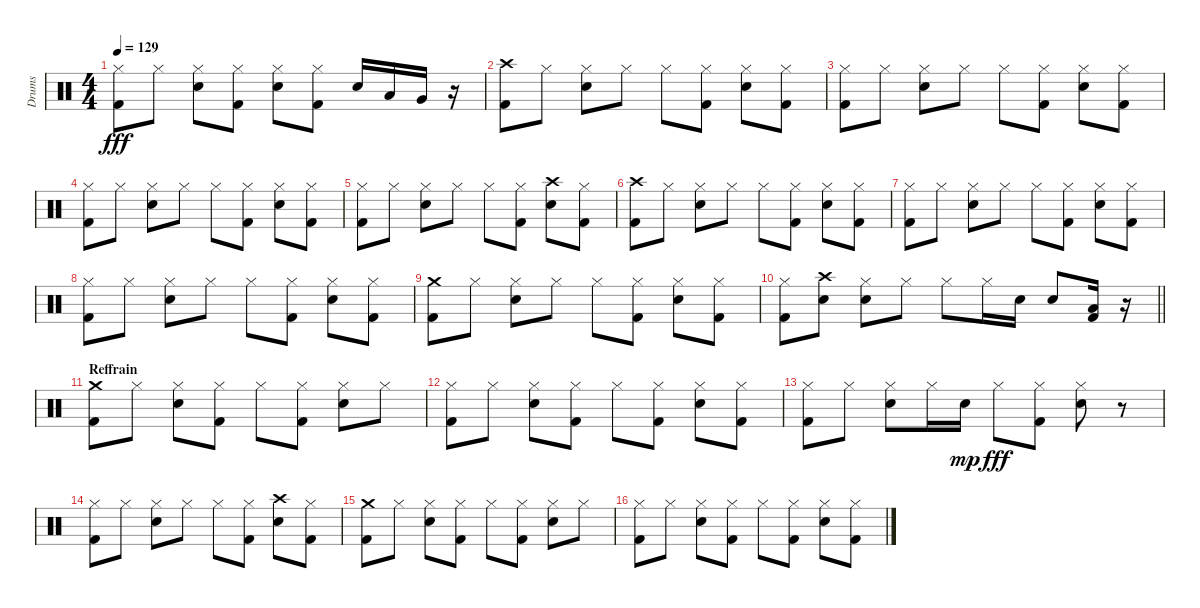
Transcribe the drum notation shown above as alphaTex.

\track ("Drums" "Drums") {instrument percussion}
\staff {score}
\articulation defaults
\ts (4 4)
\tempo 129
\clef neutral
\ks c
("Hi-Hat (closed)" "Kick (hit) 2").8{dy fff} "Hi-Hat (closed)".8 ("Hi-Hat (closed)" "Snare (hit) 2").8 ("Hi-Hat (closed)" "Kick (hit) 2").8 ("Hi-Hat (closed)" "Snare (hit) 2").8 ("Hi-Hat (closed)" "Kick (hit) 2").8 "Snare (hit) 2".16 "Low Tom (hit)".16 "Very Low Tom (hit)".16 r.16 |
("Crash high (hit)" "Kick (hit) 2").8 "Hi-Hat (closed)".8 ("Hi-Hat (closed)" "Snare (hit) 2").8 "Hi-Hat (closed)".8 "Hi-Hat (closed)".8 ("Hi-Hat (closed)" "Kick (hit) 2").8 ("Hi-Hat (closed)" "Snare (hit) 2").8 ("Hi-Hat (closed)" "Kick (hit) 2").8 |
("Hi-Hat (closed)" "Kick (hit) 2").8 "Hi-Hat (closed)".8 ("Hi-Hat (closed)" "Snare (hit) 2").8 "Hi-Hat (closed)".8 "Hi-Hat (closed)".8 ("Hi-Hat (closed)" "Kick (hit) 2").8 ("Hi-Hat (closed)" "Snare (hit) 2").8 ("Hi-Hat (closed)" "Kick (hit) 2").8 |
("Hi-Hat (closed)" "Kick (hit) 2").8 "Hi-Hat (closed)".8 ("Hi-Hat (closed)" "Snare (hit) 2").8 "Hi-Hat (closed)".8 "Hi-Hat (closed)".8 ("Hi-Hat (closed)" "Kick (hit) 2").8 ("Hi-Hat (closed)" "Snare (hit) 2").8 ("Hi-Hat (closed)" "Kick (hit) 2").8 |
("Hi-Hat (closed)" "Kick (hit) 2").8 "Hi-Hat (closed)".8 ("Hi-Hat (closed)" "Snare (hit) 2").8 "Hi-Hat (closed)".8 "Hi-Hat (closed)".8 ("Hi-Hat (closed)" "Kick (hit) 2").8 ("Crash high (hit)" "Snare (hit) 2").8 ("Hi-Hat (closed)" "Kick (hit) 2").8 |
("Crash high (hit)" "Kick (hit) 2").8 "Hi-Hat (closed)".8 ("Hi-Hat (closed)" "Snare (hit) 2").8 "Hi-Hat (closed)".8 "Hi-Hat (closed)".8 ("Hi-Hat (closed)" "Kick (hit) 2").8 ("Hi-Hat (closed)" "Snare (hit) 2").8 ("Hi-Hat (closed)" "Kick (hit) 2").8 |
("Hi-Hat (closed)" "Kick (hit) 2").8 "Hi-Hat (closed)".8 ("Hi-Hat (closed)" "Snare (hit) 2").8 "Hi-Hat (closed)".8 "Hi-Hat (closed)".8 ("Hi-Hat (closed)" "Kick (hit) 2").8 ("Hi-Hat (closed)" "Snare (hit) 2").8 ("Hi-Hat (closed)" "Kick (hit) 2").8 |
("Hi-Hat (closed)" "Kick (hit) 2").8 "Hi-Hat (closed)".8 ("Hi-Hat (closed)" "Snare (hit) 2").8 "Hi-Hat (closed)".8 "Hi-Hat (closed)".8 ("Hi-Hat (closed)" "Kick (hit) 2").8 ("Hi-Hat (closed)" "Snare (hit) 2").8 ("Hi-Hat (closed)" "Kick (hit) 2").8 |
("Crash medium (hit)" "Kick (hit) 2").8 "Hi-Hat (closed)".8 ("Hi-Hat (closed)" "Snare (hit) 2").8 "Hi-Hat (closed)".8 "Hi-Hat (closed)".8 ("Hi-Hat (closed)" "Kick (hit) 2").8 ("Hi-Hat (closed)" "Snare (hit) 2").8 ("Hi-Hat (closed)" "Kick (hit) 2").8 |
\barLineRight lightlight
("Hi-Hat (closed)" "Kick (hit) 2").8 ("Crash high (hit)" "Snare (hit) 2").8 ("Hi-Hat (closed)" "Snare (hit) 2").8 "Hi-Hat (closed)".8 "Hi-Hat (closed)".8 "Hi-Hat (closed)".16 "Snare (hit) 2".16 "Snare (hit) 2".8 ("Low Tom (hit)" "Kick (hit) 2").16 r.16 |
\section ("" "Reffrain")
("Crash medium (hit)" "Kick (hit) 2").8 "Hi-Hat (closed)".8 ("Hi-Hat (closed)" "Snare (hit) 2").8 ("Hi-Hat (closed)" "Kick (hit) 2").8 "Hi-Hat (closed)".8 ("Hi-Hat (closed)" "Kick (hit) 2").8 ("Hi-Hat (closed)" "Snare (hit) 2").8 "Hi-Hat (closed)".8 |
("Hi-Hat (closed)" "Kick (hit) 2").8 "Hi-Hat (closed)".8 ("Hi-Hat (closed)" "Snare (hit) 2").8 ("Hi-Hat (closed)" "Kick (hit) 2").8 "Hi-Hat (closed)".8 ("Hi-Hat (closed)" "Kick (hit) 2").8 ("Hi-Hat (closed)" "Snare (hit) 2").8 ("Hi-Hat (closed)" "Kick (hit) 2").8 |
("Hi-Hat (closed)" "Kick (hit) 2").8 "Hi-Hat (closed)".8 ("Hi-Hat (closed)" "Snare (hit) 2").8 "Hi-Hat (closed)".16 "Snare (hit) 2".16{dy mp} "Hi-Hat (closed)".8{dy fff} ("Hi-Hat (closed)" "Kick (hit) 2").8 ("Hi-Hat (closed)" "Snare (hit) 2").8 r.8 |
("Hi-Hat (closed)" "Kick (hit) 2").8 "Hi-Hat (closed)".8 ("Hi-Hat (closed)" "Snare (hit) 2").8 "Hi-Hat (closed)".8 "Hi-Hat (closed)".8 ("Hi-Hat (closed)" "Kick (hit) 2").8 ("Crash high (hit)" "Snare (hit) 2").8 ("Hi-Hat (closed)" "Kick (hit) 2").8 |
("Crash medium (hit)" "Kick (hit) 2").8 "Hi-Hat (closed)".8 ("Hi-Hat (closed)" "Snare (hit) 2").8 ("Hi-Hat (closed)" "Kick (hit) 2").8 "Hi-Hat (closed)".8 ("Hi-Hat (closed)" "Kick (hit) 2").8 ("Hi-Hat (closed)" "Snare (hit) 2").8 "Hi-Hat (closed)".8 |
("Hi-Hat (closed)" "Kick (hit) 2").8 "Hi-Hat (closed)".8 ("Hi-Hat (closed)" "Snare (hit) 2").8 ("Hi-Hat (closed)" "Kick (hit) 2").8 "Hi-Hat (closed)".8 ("Hi-Hat (closed)" "Kick (hit) 2").8 ("Hi-Hat (closed)" "Snare (hit) 2").8 ("Hi-Hat (closed)" "Kick (hit) 2").8
